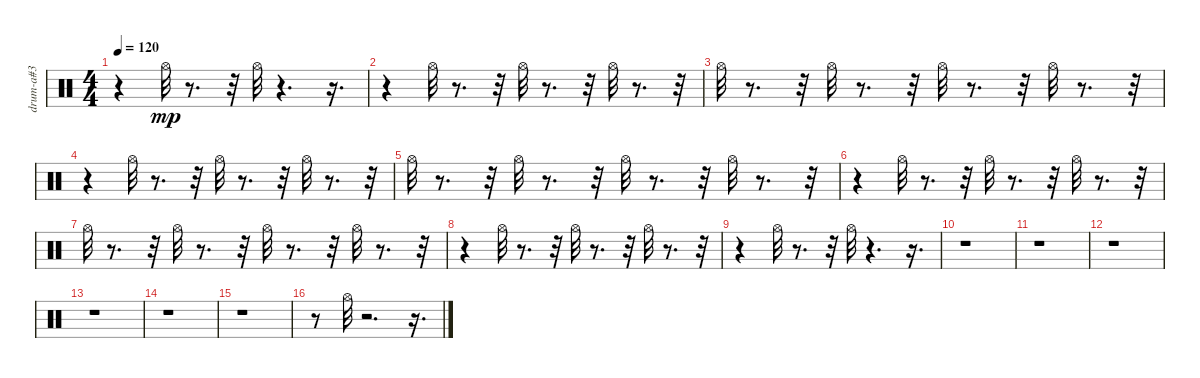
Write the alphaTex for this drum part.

\track ("drum-a#3" "drum-a#3") {instrument percussion}
\staff {score}
\articulation defaults
\ts (4 4)
\tempo 120
\clef neutral
\ks c
r.4{dy mp} "Hi-Hat (open)".32 r.8{d} r.32 "Hi-Hat (open)".32 r.4{d} r.16{d} |
r.4 "Hi-Hat (open)".32 r.8{d} r.32 "Hi-Hat (open)".32 r.8{d} r.32 "Hi-Hat (open)".32 r.8{d} r.32 |
"Hi-Hat (open)".32 r.8{d} r.32 "Hi-Hat (open)".32 r.8{d} r.32 "Hi-Hat (open)".32 r.8{d} r.32 "Hi-Hat (open)".32 r.8{d} r.32 |
r.4 "Hi-Hat (open)".32 r.8{d} r.32 "Hi-Hat (open)".32 r.8{d} r.32 "Hi-Hat (open)".32 r.8{d} r.32 |
"Hi-Hat (open)".32 r.8{d} r.32 "Hi-Hat (open)".32 r.8{d} r.32 "Hi-Hat (open)".32 r.8{d} r.32 "Hi-Hat (open)".32 r.8{d} r.32 |
r.4 "Hi-Hat (open)".32 r.8{d} r.32 "Hi-Hat (open)".32 r.8{d} r.32 "Hi-Hat (open)".32 r.8{d} r.32 |
"Hi-Hat (open)".32 r.8{d} r.32 "Hi-Hat (open)".32 r.8{d} r.32 "Hi-Hat (open)".32 r.8{d} r.32 "Hi-Hat (open)".32 r.8{d} r.32 |
r.4 "Hi-Hat (open)".32 r.8{d} r.32 "Hi-Hat (open)".32 r.8{d} r.32 "Hi-Hat (open)".32 r.8{d} r.32 |
r.4 "Hi-Hat (open)".32 r.8{d} r.32 "Hi-Hat (open)".32 r.4{d} r.16{d} |
r.1 |
r.1 |
r.1 |
r.1 |
r.1 |
r.1 |
r.8 "Hi-Hat (open)".32 r.2{d} r.16{d}
